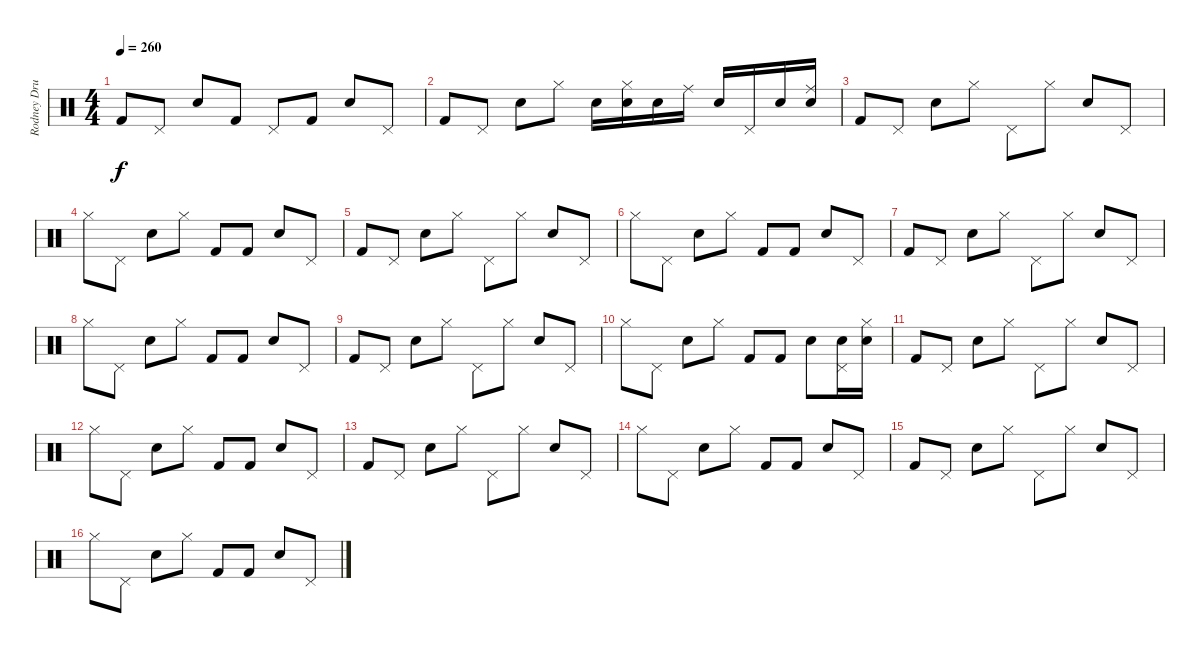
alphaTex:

\track ("Rodney Drums" "Rodney Dru") {instrument percussion}
\staff {score}
\articulation defaults
\ts (4 4)
\tempo 260
\clef neutral
\ks c "Kick (hit) 2".8{dy f} "Pedal Hi-Hat (hit)".8 "Electric Snare (hit)".8 "Kick (hit) 2".8 "Pedal Hi-Hat (hit)".8 "Kick (hit) 2".8 "Electric Snare (hit)".8 "Pedal Hi-Hat (hit)".8
|
"Kick (hit) 2".8 "Pedal Hi-Hat (hit)".8 "Electric Snare (hit)".8 "Hi-Hat (closed)".8 "Electric Snare (hit)".16 ("Hi-Hat (closed)" "Electric Snare (hit)").16 "Electric Snare (hit)".16 "Ride (middle)".16 "Electric Snare (hit)".16 "Pedal Hi-Hat (hit)".16 "Electric Snare (hit)".16 ("Electric Snare (hit)" "Ride (middle)").16 |
"Kick (hit) 2".8 "Pedal Hi-Hat (hit)".8 "Electric Snare (hit)".8 "Hi-Hat (closed)".8 "Pedal Hi-Hat (hit)".8 "Hi-Hat (closed)".8 "Electric Snare (hit)".8 "Pedal Hi-Hat (hit)".8 |
"Hi-Hat (closed)".8 "Pedal Hi-Hat (hit)".8 "Electric Snare (hit)".8 "Hi-Hat (closed)".8 "Kick (hit) 2".8 "Kick (hit) 2".8 "Electric Snare (hit)".8 "Pedal Hi-Hat (hit)".8 |
"Kick (hit) 2".8 "Pedal Hi-Hat (hit)".8 "Electric Snare (hit)".8 "Hi-Hat (closed)".8 "Pedal Hi-Hat (hit)".8 "Hi-Hat (closed)".8 "Electric Snare (hit)".8 "Pedal Hi-Hat (hit)".8 |
"Hi-Hat (closed)".8 "Pedal Hi-Hat (hit)".8 "Electric Snare (hit)".8 "Hi-Hat (closed)".8 "Kick (hit) 2".8 "Kick (hit) 2".8 "Electric Snare (hit)".8 "Pedal Hi-Hat (hit)".8 |
"Kick (hit) 2".8 "Pedal Hi-Hat (hit)".8 "Electric Snare (hit)".8 "Hi-Hat (closed)".8 "Pedal Hi-Hat (hit)".8 "Hi-Hat (closed)".8 "Electric Snare (hit)".8 "Pedal Hi-Hat (hit)".8 |
"Hi-Hat (closed)".8 "Pedal Hi-Hat (hit)".8 "Electric Snare (hit)".8 "Hi-Hat (closed)".8 "Kick (hit) 2".8 "Kick (hit) 2".8 "Electric Snare (hit)".8 "Pedal Hi-Hat (hit)".8 |
"Kick (hit) 2".8 "Pedal Hi-Hat (hit)".8 "Electric Snare (hit)".8 "Hi-Hat (closed)".8 "Pedal Hi-Hat (hit)".8 "Hi-Hat (closed)".8 "Electric Snare (hit)".8 "Pedal Hi-Hat (hit)".8 |
"Hi-Hat (closed)".8 "Pedal Hi-Hat (hit)".8 "Electric Snare (hit)".8 "Hi-Hat (closed)".8 "Kick (hit) 2".8 "Kick (hit) 2".8 "Electric Snare (hit)".8 ("Pedal Hi-Hat (hit)" "Electric Snare (hit)").16 ("Hi-Hat (closed)" "Electric Snare (hit)").16 |
"Kick (hit) 2".8 "Pedal Hi-Hat (hit)".8 "Electric Snare (hit)".8 "Hi-Hat (closed)".8 "Pedal Hi-Hat (hit)".8 "Hi-Hat (closed)".8 "Electric Snare (hit)".8 "Pedal Hi-Hat (hit)".8 |
"Hi-Hat (closed)".8 "Pedal Hi-Hat (hit)".8 "Electric Snare (hit)".8 "Hi-Hat (closed)".8 "Kick (hit) 2".8 "Kick (hit) 2".8 "Electric Snare (hit)".8 "Pedal Hi-Hat (hit)".8 |
"Kick (hit) 2".8 "Pedal Hi-Hat (hit)".8 "Electric Snare (hit)".8 "Hi-Hat (closed)".8 "Pedal Hi-Hat (hit)".8 "Hi-Hat (closed)".8 "Electric Snare (hit)".8 "Pedal Hi-Hat (hit)".8 |
"Hi-Hat (closed)".8 "Pedal Hi-Hat (hit)".8 "Electric Snare (hit)".8 "Hi-Hat (closed)".8 "Kick (hit) 2".8 "Kick (hit) 2".8 "Electric Snare (hit)".8 "Pedal Hi-Hat (hit)".8 |
"Kick (hit) 2".8 "Pedal Hi-Hat (hit)".8 "Electric Snare (hit)".8 "Hi-Hat (closed)".8 "Pedal Hi-Hat (hit)".8 "Hi-Hat (closed)".8 "Electric Snare (hit)".8 "Pedal Hi-Hat (hit)".8 |
"Hi-Hat (closed)".8 "Pedal Hi-Hat (hit)".8 "Electric Snare (hit)".8 "Hi-Hat (closed)".8 "Kick (hit) 2".8 "Kick (hit) 2".8 "Electric Snare (hit)".8 "Pedal Hi-Hat (hit)".8
